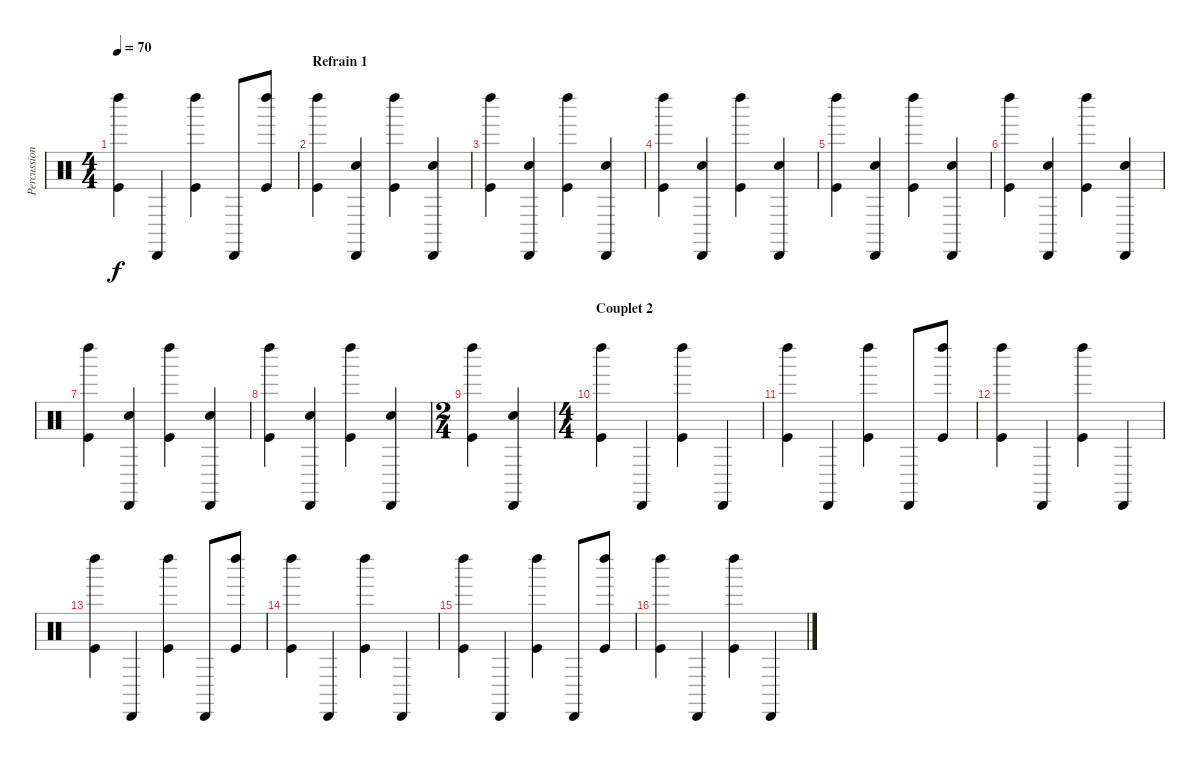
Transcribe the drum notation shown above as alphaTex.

\track ("Percussions" "Percussion") {instrument percussion}
\staff {score}
\articulation defaults
\ts (4 4)
\tempo 70
\clef neutral
\ks c
("Left Maraca (hit)" "Kick (hit)").4{dy f} "Cabasa (hit)".4 ("Left Maraca (hit)" "Kick (hit)").4 "Cabasa (hit)".8 ("Left Maraca (hit)" "Kick (hit)").8 |
\section ("" "Refrain 1")
("Left Maraca (hit)" "Kick (hit)").4 ("Cabasa (hit)" "Snare (hit) 2").4 ("Left Maraca (hit)" "Kick (hit)").4 ("Snare (hit) 2" "Cabasa (hit)").4 |
("Left Maraca (hit)" "Kick (hit)").4 ("Cabasa (hit)" "Snare (hit) 2").4 ("Left Maraca (hit)" "Kick (hit)").4 ("Snare (hit) 2" "Cabasa (hit)").4 |
("Left Maraca (hit)" "Kick (hit)").4 ("Cabasa (hit)" "Snare (hit) 2").4 ("Left Maraca (hit)" "Kick (hit)").4 ("Snare (hit) 2" "Cabasa (hit)").4 |
("Left Maraca (hit)" "Kick (hit)").4 ("Cabasa (hit)" "Snare (hit) 2").4 ("Left Maraca (hit)" "Kick (hit)").4 ("Snare (hit) 2" "Cabasa (hit)").4 |
("Left Maraca (hit)" "Kick (hit)").4 ("Cabasa (hit)" "Snare (hit) 2").4 ("Left Maraca (hit)" "Kick (hit)").4 ("Snare (hit) 2" "Cabasa (hit)").4 |
("Left Maraca (hit)" "Kick (hit)").4 ("Cabasa (hit)" "Snare (hit) 2").4 ("Left Maraca (hit)" "Kick (hit)").4 ("Snare (hit) 2" "Cabasa (hit)").4 |
("Left Maraca (hit)" "Kick (hit)").4 ("Cabasa (hit)" "Snare (hit) 2").4 ("Left Maraca (hit)" "Kick (hit)").4 ("Snare (hit) 2" "Cabasa (hit)").4 |
\ts (2 4)
("Left Maraca (hit)" "Kick (hit)").4 ("Cabasa (hit)" "Snare (hit) 2").4 |
\ts (4 4)
\section ("" "Couplet 2")
("Left Maraca (hit)" "Kick (hit)").4 "Cabasa (hit)".4 ("Left Maraca (hit)" "Kick (hit)").4 "Cabasa (hit)".4 |
("Left Maraca (hit)" "Kick (hit)").4 "Cabasa (hit)".4 ("Left Maraca (hit)" "Kick (hit)").4 "Cabasa (hit)".8 ("Left Maraca (hit)" "Kick (hit)").8 |
("Left Maraca (hit)" "Kick (hit)").4 "Cabasa (hit)".4 ("Left Maraca (hit)" "Kick (hit)").4 "Cabasa (hit)".4 |
("Left Maraca (hit)" "Kick (hit)").4 "Cabasa (hit)".4 ("Left Maraca (hit)" "Kick (hit)").4 "Cabasa (hit)".8 ("Left Maraca (hit)" "Kick (hit)").8 |
("Left Maraca (hit)" "Kick (hit)").4 "Cabasa (hit)".4 ("Left Maraca (hit)" "Kick (hit)").4 "Cabasa (hit)".4 |
("Left Maraca (hit)" "Kick (hit)").4 "Cabasa (hit)".4 ("Left Maraca (hit)" "Kick (hit)").4 "Cabasa (hit)".8 ("Left Maraca (hit)" "Kick (hit)").8 |
("Left Maraca (hit)" "Kick (hit)").4 "Cabasa (hit)".4 ("Left Maraca (hit)" "Kick (hit)").4 "Cabasa (hit)".4
